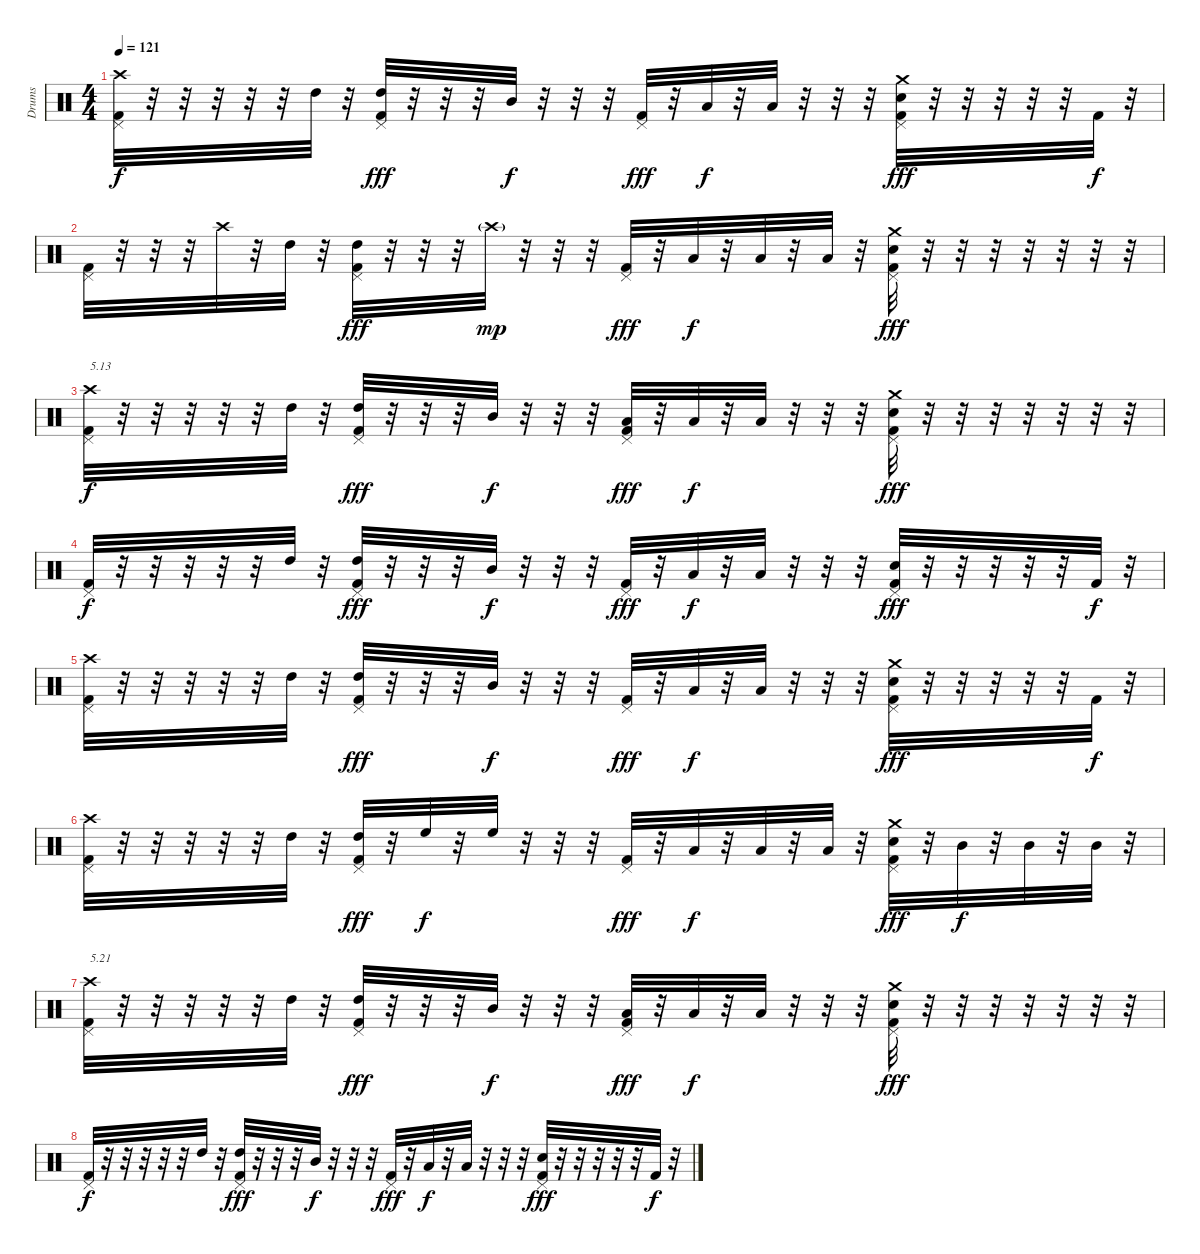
\track ("Drums" "Drums") {instrument percussion}
\staff {score}
\articulation defaults
\ts (4 4)
\tempo 121
\clef neutral
\ks c
("Pedal Hi-Hat (hit)" "Kick (hit) 2" "Crash high (hit)").32{dy f} r.32 r.32 r.32 r.32 r.32 "High Tom (hit)".32 r.32 ("Pedal Hi-Hat (hit)" "Kick (hit) 2" "High Tom (hit)").32{dy fff} r.32 r.32 r.32 "Mid Tom (hit)".32{dy f} r.32 r.32 r.32 ("Pedal Hi-Hat (hit)" "Kick (hit) 2").32{dy fff} r.32 "Low Tom (hit)".32{dy f} r.32 "Low Tom (hit)".32 r.32 r.32 r.32 ("Pedal Hi-Hat (hit)" "Kick (hit) 2" "Electric Snare (hit)" "Crash medium (hit)").32{dy fff} r.32 r.32 r.32 r.32 r.32 "Kick (hit) 2".32{dy f} r.32 |
("Pedal Hi-Hat (hit)" "Kick (hit) 2").32 r.32 r.32 r.32 "Crash high (hit)".32 r.32 "High Tom (hit)".32 r.32 ("Pedal Hi-Hat (hit)" "Kick (hit) 2" "High Tom (hit)").32{dy fff} r.32 r.32 r.32 "Crash high (hit)"{g}.32{dy mp} r.32 r.32 r.32 ("Pedal Hi-Hat (hit)" "Kick (hit) 2").32{dy fff} r.32 "Low Tom (hit)".32{dy f} r.32 "Low Tom (hit)".32 r.32 "Low Tom (hit)".32 r.32 ("Pedal Hi-Hat (hit)" "Kick (hit) 2" "Crash medium (hit)" "Electric Snare (hit)").32{dy fff} r.32 r.32 r.32 r.32 r.32 r.32 r.32 |
("Pedal Hi-Hat (hit)" "Kick (hit) 2" "Crash high (hit)").32{txt "5.13" dy f} r.32 r.32 r.32 r.32 r.32 "High Tom (hit)".32 r.32 ("Pedal Hi-Hat (hit)" "Kick (hit) 2" "High Tom (hit)").32{dy fff} r.32 r.32 r.32 "Mid Tom (hit)".32{dy f} r.32 r.32 r.32 ("Pedal Hi-Hat (hit)" "Kick (hit) 2" "Low Tom (hit)").32{dy fff} r.32 "Low Tom (hit)".32{dy f} r.32 "Low Tom (hit)".32 r.32 r.32 r.32 ("Pedal Hi-Hat (hit)" "Kick (hit) 2" "Electric Snare (hit)" "Crash medium (hit)").32{dy fff} r.32 r.32 r.32 r.32 r.32 r.32 r.32 |
("Pedal Hi-Hat (hit)" "Kick (hit) 2").32{dy f} r.32 r.32 r.32 r.32 r.32 "High Tom (hit)".32 r.32 ("Pedal Hi-Hat (hit)" "Kick (hit) 2" "High Tom (hit)").32{dy fff} r.32 r.32 r.32 "Mid Tom (hit)".32{dy f} r.32 r.32 r.32 ("Pedal Hi-Hat (hit)" "Kick (hit) 2").32{dy fff} r.32 "Low Tom (hit)".32{dy f} r.32 "Low Tom (hit)".32 r.32 r.32 r.32 ("Pedal Hi-Hat (hit)" "Kick (hit) 2" "Electric Snare (hit)").32{dy fff} r.32 r.32 r.32 r.32 r.32 "Kick (hit) 2".32{dy f} r.32 |
("Pedal Hi-Hat (hit)" "Kick (hit) 2" "Crash high (hit)").32 r.32 r.32 r.32 r.32 r.32 "High Tom (hit)".32 r.32 ("Pedal Hi-Hat (hit)" "Kick (hit) 2" "High Tom (hit)").32{dy fff} r.32 r.32 r.32 "Mid Tom (hit)".32{dy f} r.32 r.32 r.32 ("Pedal Hi-Hat (hit)" "Kick (hit) 2").32{dy fff} r.32 "Low Tom (hit)".32{dy f} r.32 "Low Tom (hit)".32 r.32 r.32 r.32 ("Pedal Hi-Hat (hit)" "Kick (hit) 2" "Electric Snare (hit)" "Crash medium (hit)").32{dy fff} r.32 r.32 r.32 r.32 r.32 "Kick (hit) 2".32{dy f} r.32 |
("Pedal Hi-Hat (hit)" "Kick (hit) 2" "Crash high (hit)").32 r.32 r.32 r.32 r.32 r.32 "High Tom (hit)".32 r.32 ("Pedal Hi-Hat (hit)" "Kick (hit) 2" "High Tom (hit)").32{dy fff} r.32 "High Floor Tom (hit)".32{dy f} r.32 "High Floor Tom (hit)".32 r.32 r.32 r.32 ("Pedal Hi-Hat (hit)" "Kick (hit) 2").32{dy fff} r.32 "Low Tom (hit)".32{dy f} r.32 "Low Tom (hit)".32 r.32 "Low Tom (hit)".32 r.32 ("Pedal Hi-Hat (hit)" "Kick (hit) 2" "Crash medium (hit)" "Electric Snare (hit)").32{dy fff} r.32 "Mid Tom (hit)".32{dy f} r.32 "Mid Tom (hit)".32 r.32 "Mid Tom (hit)".32 r.32 |
("Pedal Hi-Hat (hit)" "Kick (hit) 2" "Crash high (hit)").32{txt "5.21"} r.32 r.32 r.32 r.32 r.32 "High Tom (hit)".32 r.32 ("Pedal Hi-Hat (hit)" "Kick (hit) 2" "High Tom (hit)").32{dy fff} r.32 r.32 r.32 "Mid Tom (hit)".32{dy f} r.32 r.32 r.32 ("Pedal Hi-Hat (hit)" "Kick (hit) 2" "Low Tom (hit)").32{dy fff} r.32 "Low Tom (hit)".32{dy f} r.32 "Low Tom (hit)".32 r.32 r.32 r.32 ("Pedal Hi-Hat (hit)" "Kick (hit) 2" "Electric Snare (hit)" "Crash medium (hit)").32{dy fff} r.32 r.32 r.32 r.32 r.32 r.32 r.32 |
("Pedal Hi-Hat (hit)" "Kick (hit) 2").32{dy f} r.32 r.32 r.32 r.32 r.32 "High Tom (hit)".32 r.32 ("Pedal Hi-Hat (hit)" "Kick (hit) 2" "High Tom (hit)").32{dy fff} r.32 r.32 r.32 "Mid Tom (hit)".32{dy f} r.32 r.32 r.32 ("Pedal Hi-Hat (hit)" "Kick (hit) 2").32{dy fff} r.32 "Low Tom (hit)".32{dy f} r.32 "Low Tom (hit)".32 r.32 r.32 r.32 ("Pedal Hi-Hat (hit)" "Kick (hit) 2" "Electric Snare (hit)").32{dy fff} r.32 r.32 r.32 r.32 r.32 "Kick (hit) 2".32{dy f} r.32
